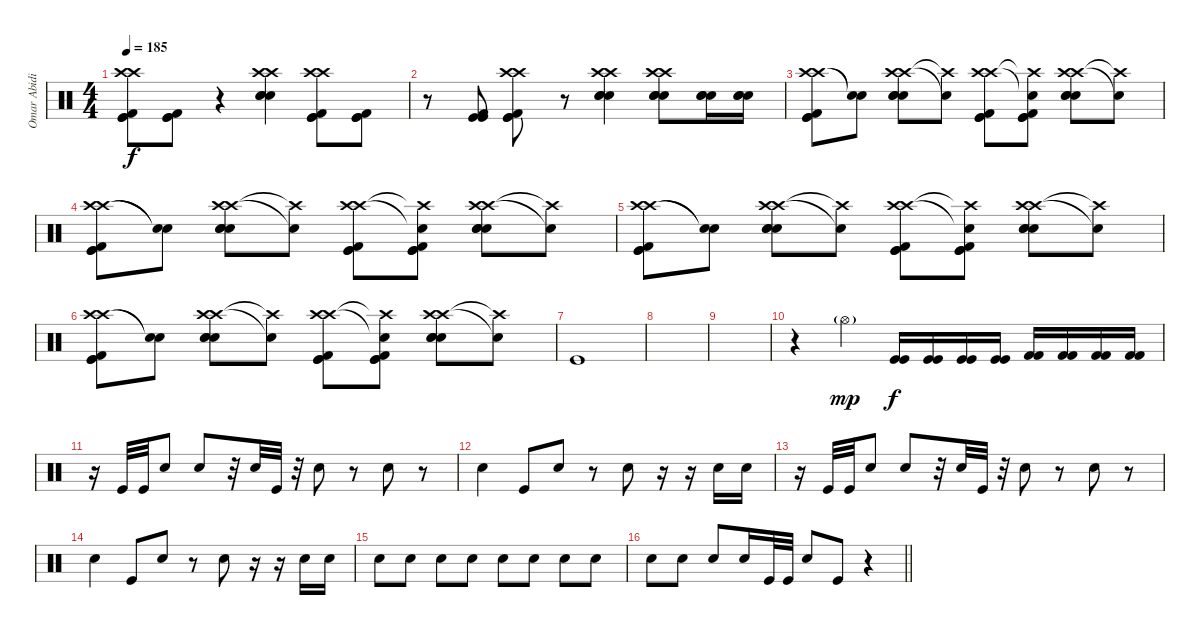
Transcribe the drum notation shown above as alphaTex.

\track ("Omar Abidi" "Omar Abidi") {instrument percussion}
\staff {score}
\articulation defaults
\ts (4 4)
\tempo 185
\clef neutral
\ks c
("Crash high (hit)" "Crash high (hit)" "Kick (hit) 2" "Kick (hit)" "Kick (hit)").8{dy f volume 16} ("Kick (hit) 2" "Kick (hit)" "Kick (hit)").8 r.4 ("Crash high (hit)" "Crash high (hit)" "Snare (hit) 2" "Snare (hit) 2" "Electric Snare (hit)").4 ("Crash high (hit)" "Crash high (hit)" "Kick (hit) 2" "Kick (hit)" "Kick (hit)").8 ("Kick (hit) 2" "Kick (hit)" "Kick (hit)").8 |
r.8 ("Kick (hit) 2" "Kick (hit)" "Kick (hit)").8 ("Crash high (hit)" "Crash high (hit)" "Kick (hit) 2" "Kick (hit)" "Kick (hit)").8 r.8 ("Crash high (hit)" "Crash high (hit)" "Snare (hit) 2" "Snare (hit) 2" "Electric Snare (hit)").4 ("Crash high (hit)" "Crash high (hit)" "Snare (hit) 2" "Snare (hit) 2" "Electric Snare (hit)").8 ("Snare (hit) 2" "Electric Snare (hit)" "Snare (hit) 2").16 ("Snare (hit) 2" "Electric Snare (hit)" "Snare (hit) 2").16 |
("Crash high (hit)" "Crash high (hit)" "Kick (hit) 2" "Kick (hit)" "Kick (hit)").8 ("Snare (hit)"{t} "Snare (hit)"{t}).8 ("Crash high (hit)" "Crash high (hit)" "Snare (hit) 2" "Electric Snare (hit)" "Snare (hit) 2").8 ("Snare (hit)"{t} "Crash high (hit)"{t}).8 ("Crash high (hit)" "Crash high (hit)" "Kick (hit) 2" "Kick (hit)" "Kick (hit)").8 ("Snare (hit)"{t} "Crash high (hit)"{t} "Kick (hit) 2" "Kick (hit)" "Kick (hit)").8 ("Crash high (hit)" "Crash high (hit)" "Snare (hit) 2" "Electric Snare (hit)" "Snare (hit) 2").8 ("Snare (hit)"{t} "Crash high (hit)"{t}).8 |
("Crash high (hit)" "Crash high (hit)" "Kick (hit) 2" "Kick (hit)" "Kick (hit)").8 ("Snare (hit)"{t} "Snare (hit)"{t}).8 ("Crash high (hit)" "Crash high (hit)" "Snare (hit) 2" "Electric Snare (hit)" "Snare (hit) 2").8 ("Snare (hit)"{t} "Crash high (hit)"{t}).8 ("Crash high (hit)" "Crash high (hit)" "Kick (hit) 2" "Kick (hit)" "Kick (hit)").8 ("Snare (hit)"{t} "Crash high (hit)"{t} "Kick (hit) 2" "Kick (hit)" "Kick (hit)").8 ("Crash high (hit)" "Crash high (hit)" "Snare (hit) 2" "Electric Snare (hit)" "Snare (hit) 2").8 ("Snare (hit)"{t} "Crash high (hit)"{t}).8 |
("Crash high (hit)" "Crash high (hit)" "Kick (hit) 2" "Kick (hit)" "Kick (hit)").8 ("Snare (hit)"{t} "Snare (hit)"{t}).8 ("Crash high (hit)" "Crash high (hit)" "Snare (hit) 2" "Electric Snare (hit)" "Snare (hit) 2").8 ("Snare (hit)"{t} "Crash high (hit)"{t}).8 ("Crash high (hit)" "Crash high (hit)" "Kick (hit) 2" "Kick (hit)" "Kick (hit)").8 ("Snare (hit)"{t} "Crash high (hit)"{t} "Kick (hit) 2" "Kick (hit)" "Kick (hit)").8 ("Crash high (hit)" "Crash high (hit)" "Snare (hit) 2" "Electric Snare (hit)" "Snare (hit) 2").8 ("Snare (hit)"{t} "Crash high (hit)"{t}).8 |
("Crash high (hit)" "Crash high (hit)" "Kick (hit) 2" "Kick (hit)" "Kick (hit)").8 ("Snare (hit)"{t} "Snare (hit)"{t}).8 ("Crash high (hit)" "Crash high (hit)" "Snare (hit) 2" "Electric Snare (hit)" "Snare (hit) 2").8 ("Snare (hit)"{t} "Crash high (hit)"{t}).8 ("Crash high (hit)" "Crash high (hit)" "Kick (hit) 2" "Kick (hit)" "Kick (hit)").8 ("Snare (hit)"{t} "Crash high (hit)"{t} "Kick (hit) 2" "Kick (hit)" "Kick (hit)").8 ("Crash high (hit)" "Crash high (hit)" "Snare (hit) 2" "Electric Snare (hit)" "Snare (hit) 2").8 ("Snare (hit)"{t} "Crash high (hit)"{t}).8 |
"Kick (hit)".1{volume 7} |
|
|
r.4 "Hi-Hat (open)"{g}.4{dy mp} ("Kick (hit)" "Kick (hit)").16{dy f} ("Kick (hit)" "Kick (hit)").16 ("Kick (hit)" "Kick (hit)").16 ("Kick (hit)" "Kick (hit)").16 ("Kick (hit) 2" "Kick (hit) 2").16 ("Kick (hit) 2" "Kick (hit) 2").16 ("Kick (hit) 2" "Kick (hit) 2").16 ("Kick (hit) 2" "Kick (hit) 2").16 |
r.16{volume 1} "Kick (hit)".32 "Kick (hit)".32 "Snare (hit) 2".8 "Snare (hit) 2".8 r.32 "Snare (hit) 2".32 "Kick (hit)".32 r.32 "Snare (hit) 2".8 r.8 "Snare (hit) 2".8 r.8 |
"Snare (hit) 2".4 "Kick (hit)".8 "Snare (hit) 2".8 r.8 "Snare (hit) 2".8 r.16 r.16 "Snare (hit) 2".16 "Snare (hit) 2".16 |
r.16{volume 1} "Kick (hit)".32 "Kick (hit)".32 "Snare (hit) 2".8 "Snare (hit) 2".8 r.32 "Snare (hit) 2".32 "Kick (hit)".32 r.32 "Snare (hit) 2".8 r.8 "Snare (hit) 2".8 r.8 |
"Snare (hit) 2".4 "Kick (hit)".8 "Snare (hit) 2".8 r.8 "Snare (hit) 2".8 r.16 r.16 "Snare (hit) 2".16 "Snare (hit) 2".16 |
"Snare (hit) 2".8{volume 4} "Snare (hit) 2".8{volume 16} "Snare (hit) 2".8 "Snare (hit) 2".8 "Snare (hit) 2".8 "Snare (hit) 2".8 "Snare (hit) 2".8 "Snare (hit) 2".8 |
\barLineRight lightlight "Snare (hit) 2".8 "Snare (hit) 2".8 "Snare (hit) 2".8 "Snare (hit) 2".16 "Kick (hit)".32 "Kick (hit)".32 "Snare (hit) 2".8 "Kick (hit)".8
r.4
